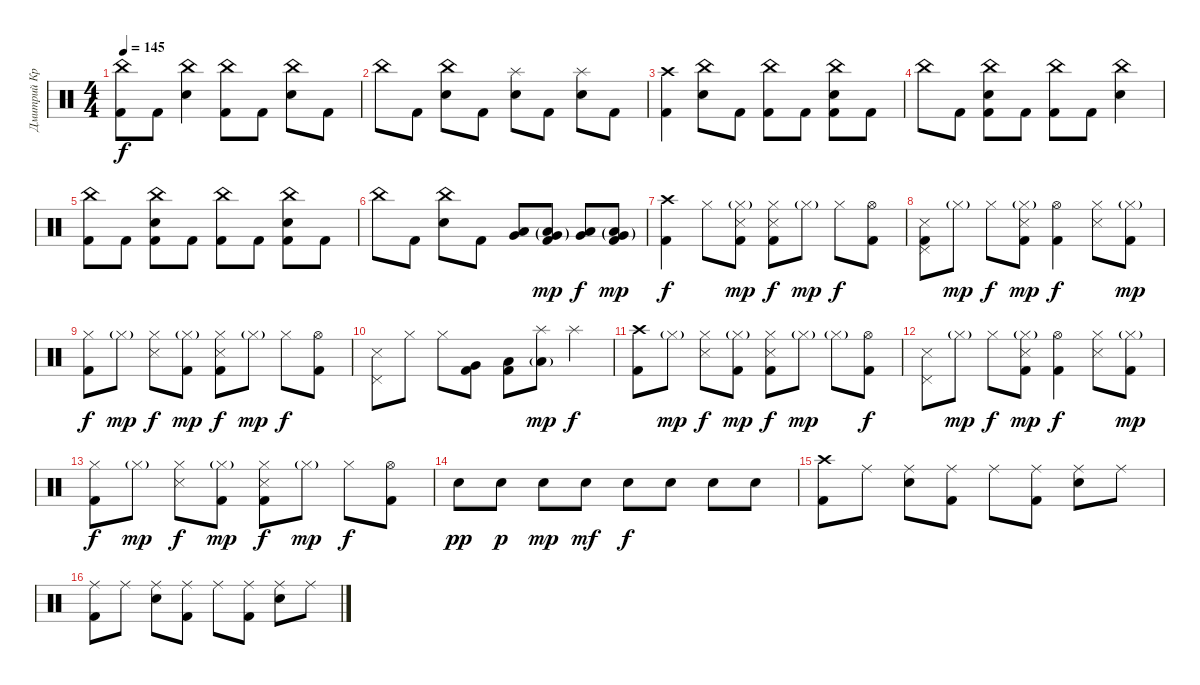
\track ("Дмитрий Кривенков" "Дмитрий Кр") {instrument percussion}
\staff {score}
\articulation defaults
\ts (4 4)
\tempo 145
\clef neutral
\ks c
("China (hit)" "Kick (hit) 2").8{dy f} "Kick (hit) 2".8 ("China (hit)" "Electric Snare (hit)").4 ("China (hit)" "Kick (hit) 2").8 "Kick (hit) 2".8 ("China (hit)" "Electric Snare (hit)").8 "Kick (hit) 2".8 |
"China (hit)".8 "Kick (hit) 2".8 ("China (hit)" "Electric Snare (hit)").8 "Kick (hit) 2".8 ("Splash (hit)" "Electric Snare (hit)").8 "Kick (hit) 2".8 ("Splash (hit)" "Electric Snare (hit)").8 "Kick (hit) 2".8 |
("Crash high (hit)" "Kick (hit) 2").4 ("China (hit)" "Electric Snare (hit)").8 "Kick (hit) 2".8 ("China (hit)" "Kick (hit) 2").8 "Kick (hit) 2".8 ("China (hit)" "Electric Snare (hit)" "Kick (hit) 2").8 "Kick (hit) 2".8 |
"China (hit)".8 "Kick (hit) 2".8 ("China (hit)" "Electric Snare (hit)" "Kick (hit) 2").8 "Kick (hit) 2".8 ("China (hit)" "Kick (hit) 2").8 "Kick (hit) 2".8 ("China (hit)" "Electric Snare (hit)").4 |
("China (hit)" "Kick (hit) 2").8 "Kick (hit) 2".8 ("China (hit)" "Electric Snare (hit)" "Kick (hit) 2").8 "Kick (hit) 2".8 ("China (hit)" "Kick (hit) 2").8 "Kick (hit) 2".8 ("China (hit)" "Electric Snare (hit)" "Kick (hit) 2").8 "Kick (hit) 2".8 |
"China (hit)".8 "Kick (hit) 2".8 ("China (hit)" "Electric Snare (hit)").8 "Kick (hit) 2".8 ("Low Tom (hit)" "Very Low Tom (hit)").8 ("Low Tom (hit)"{g} "Very Low Tom (hit)"{g} "Kick (hit) 2").8{dy mp} ("Very Low Tom (hit)" "Low Floor Tom (hit)").8{dy f} ("Very Low Tom (hit)"{g} "Low Floor Tom (hit)"{g} "Kick (hit) 2").8{dy mp} |
("Crash high (hit)" "Kick (hit) 2").4{dy f} "Hi-Hat (closed)".8 ("Hi-Hat (closed)"{g} "Snare (side stick) 3" "Kick (hit) 2").8{dy mp} ("Hi-Hat (closed)" "Snare (side stick) 3" "Kick (hit) 2").8{dy f} "Hi-Hat (closed)"{g}.8{dy mp} "Hi-Hat (closed)".8{dy f} ("Hi-Hat (open)" "Kick (hit) 2").8 |
("Pedal Hi-Hat (hit)" "Snare (side stick) 3" "Kick (hit) 2").8 "Hi-Hat (closed)"{g}.8{dy mp} "Hi-Hat (closed)".8{dy f} ("Hi-Hat (closed)"{g} "Snare (side stick) 3" "Kick (hit) 2").8{dy mp} ("Hi-Hat (open)" "Kick (hit) 2").4{dy f} ("Hi-Hat (closed)" "Snare (side stick) 3").8 ("Hi-Hat (closed)"{g} "Kick (hit) 2").8{dy mp} |
("Hi-Hat (closed)" "Kick (hit) 2").8{dy f} "Hi-Hat (closed)"{g}.8{dy mp} ("Hi-Hat (closed)" "Snare (side stick) 3").8{dy f} ("Hi-Hat (closed)"{g} "Kick (hit) 2").8{dy mp} ("Hi-Hat (closed)" "Snare (side stick) 3" "Kick (hit) 2").8{dy f} "Hi-Hat (closed)"{g}.8{dy mp} "Hi-Hat (closed)".8{dy f} ("Hi-Hat (open)" "Kick (hit) 2").8 |
("Pedal Hi-Hat (hit)" "Snare (side stick) 3").8 "Hi-Hat (closed)".8 "Hi-Hat (closed)".8 ("Very Low Tom (hit)" "Kick (hit) 2").8 ("Low Floor Tom (hit)" "Kick (hit) 2").8 ("Splash (hit)" "Low Floor Tom (hit)"{g}).8{dy mp} "Splash (hit)".4{dy f} |
("Crash high (hit)" "Kick (hit) 2").8 "Hi-Hat (closed)"{g}.8{dy mp} ("Hi-Hat (closed)" "Snare (side stick) 3").8{dy f} ("Hi-Hat (closed)"{g} "Kick (hit) 2").8{dy mp} ("Hi-Hat (closed)" "Snare (side stick) 3" "Kick (hit) 2").8{dy f} "Hi-Hat (closed)"{g}.8{dy mp} "Hi-Hat (closed)"{g}.8 ("Hi-Hat (open)" "Kick (hit) 2").8{dy f} |
("Pedal Hi-Hat (hit)" "Snare (side stick) 3").8 "Hi-Hat (closed)"{g}.8{dy mp} "Hi-Hat (closed)".8{dy f} ("Hi-Hat (closed)"{g} "Snare (side stick) 3" "Kick (hit) 2").8{dy mp} ("Hi-Hat (open)" "Kick (hit) 2").4{dy f} ("Hi-Hat (closed)" "Snare (side stick) 3").8 ("Hi-Hat (closed)"{g} "Kick (hit) 2").8{dy mp} |
("Hi-Hat (closed)" "Kick (hit) 2").8{dy f} "Hi-Hat (closed)"{g}.8{dy mp} ("Hi-Hat (closed)" "Snare (side stick) 3").8{dy f} ("Hi-Hat (closed)"{g} "Kick (hit) 2").8{dy mp} ("Hi-Hat (closed)" "Snare (side stick) 3" "Kick (hit) 2").8{dy f} "Hi-Hat (closed)"{g}.8{dy mp} "Hi-Hat (closed)".8{dy f} ("Hi-Hat (open)" "Kick (hit) 2").8 |
"Electric Snare (hit)".8{dy pp} "Electric Snare (hit)".8{dy p} "Electric Snare (hit)".8{dy mp} "Electric Snare (hit)".8{dy mf} "Electric Snare (hit)".8{dy f} "Electric Snare (hit)".8 "Electric Snare (hit)".8 "Electric Snare (hit)".8 |
("Crash high (hit)" "Kick (hit) 2").8 "Ride (middle)".8 ("Ride (middle)" "Electric Snare (hit)").8 ("Ride (middle)" "Kick (hit) 2").8 "Ride (middle)".8 ("Ride (middle)" "Kick (hit) 2").8 ("Ride (middle)" "Electric Snare (hit)").8 "Ride (middle)".8 |
("Ride (middle)" "Kick (hit) 2").8 "Ride (middle)".8 ("Ride (middle)" "Electric Snare (hit)").8 ("Ride (middle)" "Kick (hit) 2").8 "Ride (middle)".8 ("Ride (middle)" "Kick (hit) 2").8 ("Ride (middle)" "Electric Snare (hit)").8 "Ride (middle)".8
